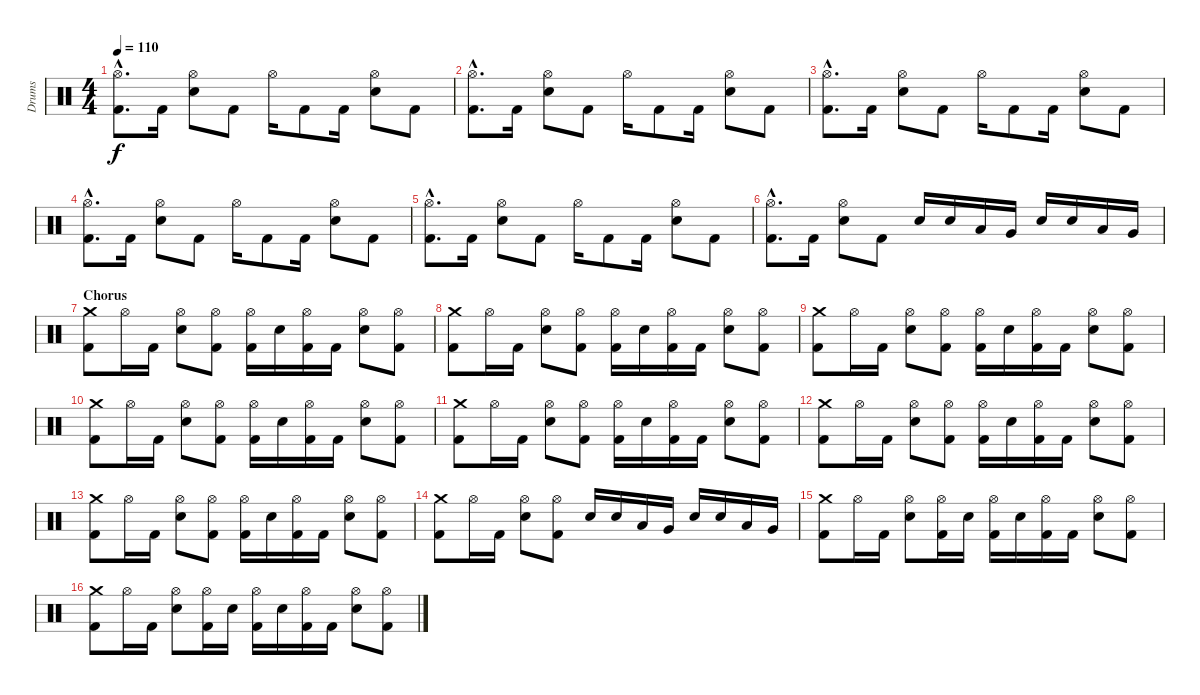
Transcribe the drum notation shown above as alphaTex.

\track ("Drums" "Drums") {instrument percussion}
\staff {score}
\articulation defaults
\ts (4 4)
\tempo 110
\clef neutral
\ks c
("Hi-Hat (open)"{hac} "Kick (hit) 2"{hac}).8{d dy f} "Kick (hit) 2".16 ("Hi-Hat (open)" "Electric Snare (hit)").8 "Kick (hit) 2".8 "Hi-Hat (open)".16 "Kick (hit) 2".8 "Kick (hit) 2".16 ("Hi-Hat (open)" "Electric Snare (hit)").8 "Kick (hit) 2".8 |
("Hi-Hat (open)"{hac} "Kick (hit) 2"{hac}).8{d} "Kick (hit) 2".16 ("Hi-Hat (open)" "Electric Snare (hit)").8 "Kick (hit) 2".8 "Hi-Hat (open)".16 "Kick (hit) 2".8 "Kick (hit) 2".16 ("Hi-Hat (open)" "Electric Snare (hit)").8 "Kick (hit) 2".8 |
("Hi-Hat (open)"{hac} "Kick (hit) 2"{hac}).8{d} "Kick (hit) 2".16 ("Hi-Hat (open)" "Electric Snare (hit)").8 "Kick (hit) 2".8 "Hi-Hat (open)".16 "Kick (hit) 2".8 "Kick (hit) 2".16 ("Hi-Hat (open)" "Electric Snare (hit)").8 "Kick (hit) 2".8 |
("Hi-Hat (open)"{hac} "Kick (hit) 2"{hac}).8{d} "Kick (hit) 2".16 ("Hi-Hat (open)" "Electric Snare (hit)").8 "Kick (hit) 2".8 "Hi-Hat (open)".16 "Kick (hit) 2".8 "Kick (hit) 2".16 ("Hi-Hat (open)" "Electric Snare (hit)").8 "Kick (hit) 2".8 |
("Hi-Hat (open)"{hac} "Kick (hit) 2"{hac}).8{d} "Kick (hit) 2".16 ("Hi-Hat (open)" "Electric Snare (hit)").8 "Kick (hit) 2".8 "Hi-Hat (open)".16 "Kick (hit) 2".8 "Kick (hit) 2".16 ("Hi-Hat (open)" "Electric Snare (hit)").8 "Kick (hit) 2".8 |
("Hi-Hat (open)"{hac} "Kick (hit) 2"{hac}).8{d} "Kick (hit) 2".16 ("Hi-Hat (open)" "Electric Snare (hit)").8 "Kick (hit) 2".8 "Electric Snare (hit)".16 "Electric Snare (hit)".16 "Low Tom (hit)".16 "Very Low Tom (hit)".16 "Electric Snare (hit)".16 "Electric Snare (hit)".16 "Low Tom (hit)".16 "Very Low Tom (hit)".16 |
\section ("" "Chorus")
("Crash medium (hit)" "Kick (hit) 2").8 "Hi-Hat (open)".16 "Kick (hit) 2".16 ("Hi-Hat (open)" "Electric Snare (hit)").8 ("Hi-Hat (open)" "Kick (hit) 2").8 ("Hi-Hat (open)" "Kick (hit) 2").16 "Electric Snare (hit)".16 ("Hi-Hat (open)" "Kick (hit) 2").16 "Kick (hit) 2".16 ("Hi-Hat (open)" "Electric Snare (hit)").8 ("Hi-Hat (open)" "Kick (hit) 2").8 |
("Crash medium (hit)" "Kick (hit) 2").8 "Hi-Hat (open)".16 "Kick (hit) 2".16 ("Hi-Hat (open)" "Electric Snare (hit)").8 ("Hi-Hat (open)" "Kick (hit) 2").8 ("Hi-Hat (open)" "Kick (hit) 2").16 "Electric Snare (hit)".16 ("Hi-Hat (open)" "Kick (hit) 2").16 "Kick (hit) 2".16 ("Hi-Hat (open)" "Electric Snare (hit)").8 ("Hi-Hat (open)" "Kick (hit) 2").8 |
("Crash medium (hit)" "Kick (hit) 2").8 "Hi-Hat (open)".16 "Kick (hit) 2".16 ("Hi-Hat (open)" "Electric Snare (hit)").8 ("Hi-Hat (open)" "Kick (hit) 2").8 ("Hi-Hat (open)" "Kick (hit) 2").16 "Electric Snare (hit)".16 ("Hi-Hat (open)" "Kick (hit) 2").16 "Kick (hit) 2".16 ("Hi-Hat (open)" "Electric Snare (hit)").8 ("Hi-Hat (open)" "Kick (hit) 2").8 |
("Crash medium (hit)" "Kick (hit) 2").8 "Hi-Hat (open)".16 "Kick (hit) 2".16 ("Hi-Hat (open)" "Electric Snare (hit)").8 ("Hi-Hat (open)" "Kick (hit) 2").8 ("Hi-Hat (open)" "Kick (hit) 2").16 "Electric Snare (hit)".16 ("Hi-Hat (open)" "Kick (hit) 2").16 "Kick (hit) 2".16 ("Hi-Hat (open)" "Electric Snare (hit)").8 ("Hi-Hat (open)" "Kick (hit) 2").8 |
("Crash medium (hit)" "Kick (hit) 2").8 "Hi-Hat (open)".16 "Kick (hit) 2".16 ("Hi-Hat (open)" "Electric Snare (hit)").8 ("Hi-Hat (open)" "Kick (hit) 2").8 ("Hi-Hat (open)" "Kick (hit) 2").16 "Electric Snare (hit)".16 ("Hi-Hat (open)" "Kick (hit) 2").16 "Kick (hit) 2".16 ("Hi-Hat (open)" "Electric Snare (hit)").8 ("Hi-Hat (open)" "Kick (hit) 2").8 |
("Crash medium (hit)" "Kick (hit) 2").8 "Hi-Hat (open)".16 "Kick (hit) 2".16 ("Hi-Hat (open)" "Electric Snare (hit)").8 ("Hi-Hat (open)" "Kick (hit) 2").8 ("Hi-Hat (open)" "Kick (hit) 2").16 "Electric Snare (hit)".16 ("Hi-Hat (open)" "Kick (hit) 2").16 "Kick (hit) 2".16 ("Hi-Hat (open)" "Electric Snare (hit)").8 ("Hi-Hat (open)" "Kick (hit) 2").8 |
("Crash medium (hit)" "Kick (hit) 2").8 "Hi-Hat (open)".16 "Kick (hit) 2".16 ("Hi-Hat (open)" "Electric Snare (hit)").8 ("Hi-Hat (open)" "Kick (hit) 2").8 ("Hi-Hat (open)" "Kick (hit) 2").16 "Electric Snare (hit)".16 ("Hi-Hat (open)" "Kick (hit) 2").16 "Kick (hit) 2".16 ("Hi-Hat (open)" "Electric Snare (hit)").8 ("Hi-Hat (open)" "Kick (hit) 2").8 |
("Crash medium (hit)" "Kick (hit) 2").8 "Hi-Hat (open)".16 "Kick (hit) 2".16 ("Hi-Hat (open)" "Electric Snare (hit)").8 ("Hi-Hat (open)" "Kick (hit) 2").8 "Electric Snare (hit)".16 "Electric Snare (hit)".16 "Low Tom (hit)".16 "Very Low Tom (hit)".16 "Electric Snare (hit)".16 "Electric Snare (hit)".16 "Low Tom (hit)".16 "Very Low Tom (hit)".16 |
("Crash medium (hit)" "Kick (hit) 2").8 "Hi-Hat (open)".16 "Kick (hit) 2".16 ("Hi-Hat (open)" "Electric Snare (hit)").8 ("Hi-Hat (open)" "Kick (hit) 2").16 "Electric Snare (hit)".16 ("Hi-Hat (open)" "Kick (hit) 2").16 "Electric Snare (hit)".16 ("Hi-Hat (open)" "Kick (hit) 2").16 "Kick (hit) 2".16 ("Hi-Hat (open)" "Electric Snare (hit)").8 ("Hi-Hat (open)" "Kick (hit) 2").8 |
("Crash medium (hit)" "Kick (hit) 2").8 "Hi-Hat (open)".16 "Kick (hit) 2".16 ("Hi-Hat (open)" "Electric Snare (hit)").8 ("Hi-Hat (open)" "Kick (hit) 2").16 "Electric Snare (hit)".16 ("Hi-Hat (open)" "Kick (hit) 2").16 "Electric Snare (hit)".16 ("Hi-Hat (open)" "Kick (hit) 2").16 "Kick (hit) 2".16 ("Hi-Hat (open)" "Electric Snare (hit)").8 ("Hi-Hat (open)" "Kick (hit) 2").8
